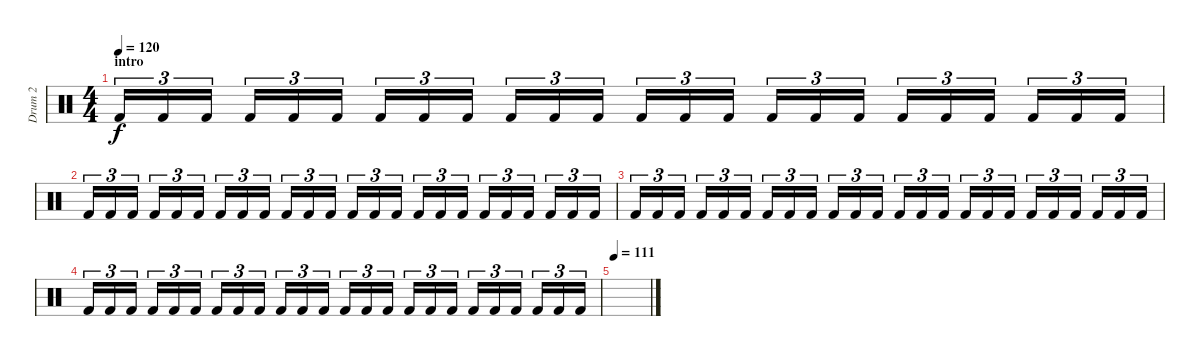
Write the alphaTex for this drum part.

\track ("Drum 2" "Drum 2") {instrument percussion}
\staff {score}
\articulation defaults
\ts (4 4)
\section ("" "intro")
\tempo 120
\clef neutral
\ks c "Kick (hit) 2".16{tu (3 2) dy f} "Kick (hit) 2".16{tu (3 2)} "Kick (hit) 2".16{tu (3 2)} "Kick (hit) 2".16{tu (3 2)} "Kick (hit) 2".16{tu (3 2)} "Kick (hit) 2".16{tu (3 2)} "Kick (hit) 2".16{tu (3 2)} "Kick (hit) 2".16{tu (3 2)} "Kick (hit) 2".16{tu (3 2)} "Kick (hit) 2".16{tu (3 2)} "Kick (hit) 2".16{tu (3 2)} "Kick (hit) 2".16{tu (3 2)} "Kick (hit) 2".16{tu (3 2)} "Kick (hit) 2".16{tu (3 2)} "Kick (hit) 2".16{tu (3 2)} "Kick (hit) 2".16{tu (3 2)} "Kick (hit) 2".16{tu (3 2)} "Kick (hit) 2".16{tu (3 2)} "Kick (hit) 2".16{tu (3 2)} "Kick (hit) 2".16{tu (3 2)} "Kick (hit) 2".16{tu (3 2)} "Kick (hit) 2".16{tu (3 2)} "Kick (hit) 2".16{tu (3 2)} "Kick (hit) 2".16{tu (3 2)}
|
"Kick (hit) 2".16{tu (3 2)} "Kick (hit) 2".16{tu (3 2)} "Kick (hit) 2".16{tu (3 2)} "Kick (hit) 2".16{tu (3 2)} "Kick (hit) 2".16{tu (3 2)} "Kick (hit) 2".16{tu (3 2)} "Kick (hit) 2".16{tu (3 2)} "Kick (hit) 2".16{tu (3 2)} "Kick (hit) 2".16{tu (3 2)} "Kick (hit) 2".16{tu (3 2)} "Kick (hit) 2".16{tu (3 2)} "Kick (hit) 2".16{tu (3 2)} "Kick (hit) 2".16{tu (3 2)} "Kick (hit) 2".16{tu (3 2)} "Kick (hit) 2".16{tu (3 2)} "Kick (hit) 2".16{tu (3 2)} "Kick (hit) 2".16{tu (3 2)} "Kick (hit) 2".16{tu (3 2)} "Kick (hit) 2".16{tu (3 2)} "Kick (hit) 2".16{tu (3 2)} "Kick (hit) 2".16{tu (3 2)} "Kick (hit) 2".16{tu (3 2)} "Kick (hit) 2".16{tu (3 2)} "Kick (hit) 2".16{tu (3 2)} |
"Kick (hit) 2".16{tu (3 2)} "Kick (hit) 2".16{tu (3 2)} "Kick (hit) 2".16{tu (3 2)} "Kick (hit) 2".16{tu (3 2)} "Kick (hit) 2".16{tu (3 2)} "Kick (hit) 2".16{tu (3 2)} "Kick (hit) 2".16{tu (3 2)} "Kick (hit) 2".16{tu (3 2)} "Kick (hit) 2".16{tu (3 2)} "Kick (hit) 2".16{tu (3 2)} "Kick (hit) 2".16{tu (3 2)} "Kick (hit) 2".16{tu (3 2)} "Kick (hit) 2".16{tu (3 2)} "Kick (hit) 2".16{tu (3 2)} "Kick (hit) 2".16{tu (3 2)} "Kick (hit) 2".16{tu (3 2)} "Kick (hit) 2".16{tu (3 2)} "Kick (hit) 2".16{tu (3 2)} "Kick (hit) 2".16{tu (3 2)} "Kick (hit) 2".16{tu (3 2)} "Kick (hit) 2".16{tu (3 2)} "Kick (hit) 2".16{tu (3 2)} "Kick (hit) 2".16{tu (3 2)} "Kick (hit) 2".16{tu (3 2)} |
"Kick (hit) 2".16{tu (3 2)} "Kick (hit) 2".16{tu (3 2)} "Kick (hit) 2".16{tu (3 2)} "Kick (hit) 2".16{tu (3 2)} "Kick (hit) 2".16{tu (3 2)} "Kick (hit) 2".16{tu (3 2)} "Kick (hit) 2".16{tu (3 2)} "Kick (hit) 2".16{tu (3 2)} "Kick (hit) 2".16{tu (3 2)} "Kick (hit) 2".16{tu (3 2)} "Kick (hit) 2".16{tu (3 2)} "Kick (hit) 2".16{tu (3 2)} "Kick (hit) 2".16{tu (3 2)} "Kick (hit) 2".16{tu (3 2)} "Kick (hit) 2".16{tu (3 2)} "Kick (hit) 2".16{tu (3 2)} "Kick (hit) 2".16{tu (3 2)} "Kick (hit) 2".16{tu (3 2)} "Kick (hit) 2".16{tu (3 2)} "Kick (hit) 2".16{tu (3 2)} "Kick (hit) 2".16{tu (3 2)} "Kick (hit) 2".16{tu (3 2)} "Kick (hit) 2".16{tu (3 2)} "Kick (hit) 2".16{tu (3 2)} |
\tempo 111
